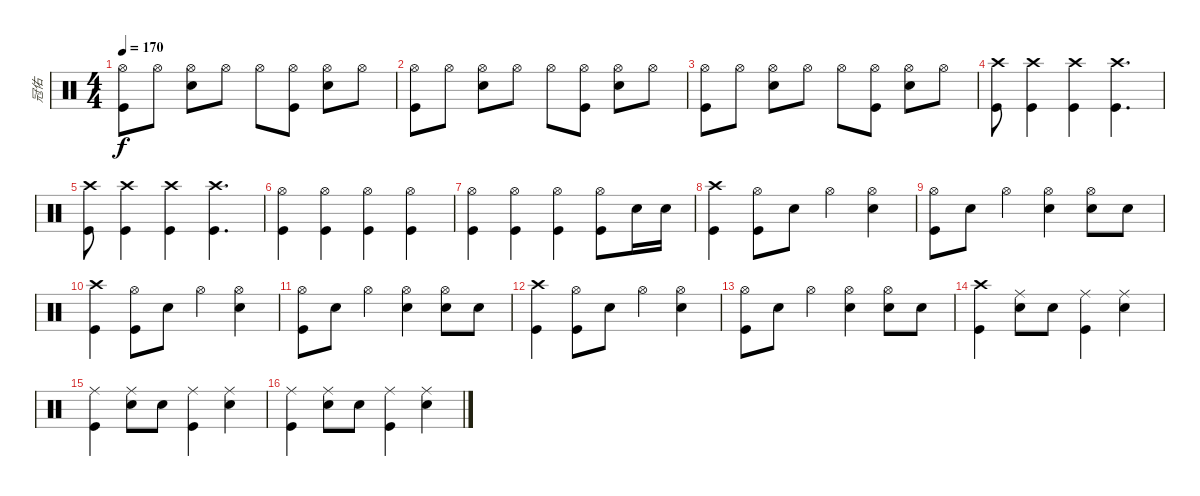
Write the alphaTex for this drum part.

\track ("冠佑" "冠佑") {instrument percussion}
\staff {score}
\articulation defaults
\ts (4 4)
\tempo 170
\clef neutral
\ks c
("Hi-Hat (open)" "Kick (hit)").8{dy f} "Hi-Hat (open)".8 ("Hi-Hat (open)" "Snare (hit) 2").8 "Hi-Hat (open)".8 "Hi-Hat (open)".8 ("Hi-Hat (open)" "Kick (hit)").8 ("Hi-Hat (open)" "Snare (hit) 2").8 "Hi-Hat (open)".8 |
("Hi-Hat (open)" "Kick (hit)").8 "Hi-Hat (open)".8 ("Hi-Hat (open)" "Snare (hit) 2").8 "Hi-Hat (open)".8 "Hi-Hat (open)".8 ("Hi-Hat (open)" "Kick (hit)").8 ("Hi-Hat (open)" "Snare (hit) 2").8 "Hi-Hat (open)".8 |
("Hi-Hat (open)" "Kick (hit)").8 "Hi-Hat (open)".8 ("Hi-Hat (open)" "Snare (hit) 2").8 "Hi-Hat (open)".8 "Hi-Hat (open)".8 ("Hi-Hat (open)" "Kick (hit)").8 ("Hi-Hat (open)" "Snare (hit) 2").8 "Hi-Hat (open)".8 |
("Crash high (hit)" "Kick (hit)").8 ("Crash high (hit)" "Kick (hit)").4 ("Crash high (hit)" "Kick (hit)").4 ("Crash high (hit)" "Kick (hit)").4{d} |
("Crash high (hit)" "Kick (hit)").8 ("Crash high (hit)" "Kick (hit)").4 ("Crash high (hit)" "Kick (hit)").4 ("Crash high (hit)" "Kick (hit)").4{d} |
("Hi-Hat (open)" "Kick (hit)").4 ("Hi-Hat (open)" "Kick (hit)").4 ("Hi-Hat (open)" "Kick (hit)").4 ("Hi-Hat (open)" "Kick (hit)").4 |
("Hi-Hat (open)" "Kick (hit)").4 ("Hi-Hat (open)" "Kick (hit)").4 ("Hi-Hat (open)" "Kick (hit)").4 ("Hi-Hat (open)" "Kick (hit)").8 "Snare (hit) 2".16 "Snare (hit) 2".16 |
("Crash high (hit)" "Kick (hit)").4 ("Hi-Hat (open)" "Kick (hit)").8 "Snare (hit) 2".8 "Hi-Hat (open)".4 ("Hi-Hat (open)" "Snare (hit) 2").4 |
("Hi-Hat (open)" "Kick (hit)").8 "Snare (hit) 2".8 "Hi-Hat (open)".4 ("Hi-Hat (open)" "Snare (hit) 2").4 ("Hi-Hat (open)" "Snare (hit) 2").8 "Snare (hit) 2".8 |
("Crash high (hit)" "Kick (hit)").4 ("Hi-Hat (open)" "Kick (hit)").8 "Snare (hit) 2".8 "Hi-Hat (open)".4 ("Hi-Hat (open)" "Snare (hit) 2").4 |
("Hi-Hat (open)" "Kick (hit)").8 "Snare (hit) 2".8 "Hi-Hat (open)".4 ("Hi-Hat (open)" "Snare (hit) 2").4 ("Hi-Hat (open)" "Snare (hit) 2").8 "Snare (hit) 2".8 |
("Crash high (hit)" "Kick (hit)").4 ("Hi-Hat (open)" "Kick (hit)").8 "Snare (hit) 2".8 "Hi-Hat (open)".4 ("Hi-Hat (open)" "Snare (hit) 2").4 |
("Hi-Hat (open)" "Kick (hit)").8 "Snare (hit) 2".8 "Hi-Hat (open)".4 ("Hi-Hat (open)" "Snare (hit) 2").4 ("Hi-Hat (open)" "Snare (hit) 2").8 "Snare (hit) 2".8 |
("Crash high (hit)" "Kick (hit)").4 ("Ride (middle)" "Snare (hit) 2").8 "Snare (hit) 2".8 ("Ride (middle)" "Kick (hit)").4 ("Ride (middle)" "Snare (hit) 2").4 |
("Ride (middle)" "Kick (hit)").4 ("Ride (middle)" "Snare (hit) 2").8 "Snare (hit) 2".8 ("Ride (middle)" "Kick (hit)").4 ("Ride (middle)" "Snare (hit) 2").4 |
("Ride (middle)" "Kick (hit)").4 ("Ride (middle)" "Snare (hit) 2").8 "Snare (hit) 2".8 ("Ride (middle)" "Kick (hit)").4 ("Ride (middle)" "Snare (hit) 2").4
